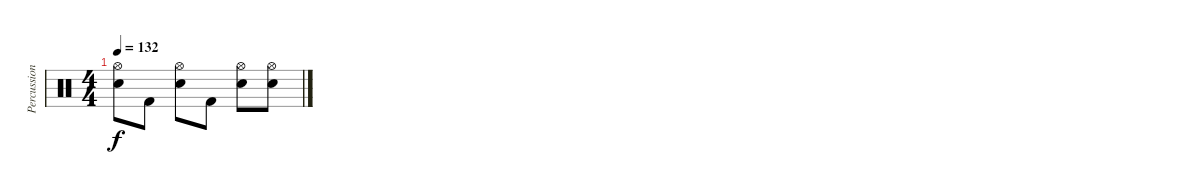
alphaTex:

\track ("Percussion" "Percussion") {instrument percussion}
\staff {score}
\articulation defaults
\ts (4 4)
\tempo 132
\clef neutral
\ks c
("Snare (hit) 2" "Hi-Hat (open)").8{dy f} "Kick (hit) 2".8 ("Snare (hit) 2" "Hi-Hat (open)").8 "Kick (hit) 2".8 ("Snare (hit) 2" "Hi-Hat (open)").8 ("Snare (hit) 2" "Hi-Hat (open)").8
